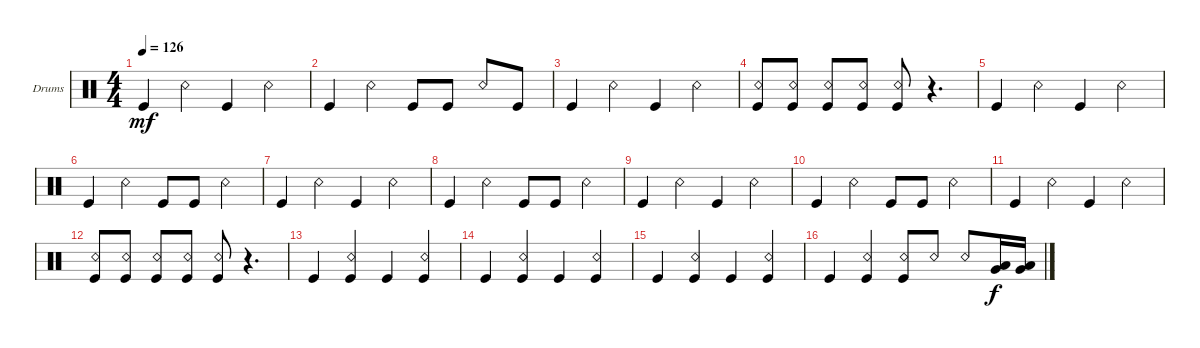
\defaultSystemsLayout 4
\bracketExtendMode groupsimilarinstruments
\firstSystemTrackNameOrientation horizontal
\otherSystemsTrackNameOrientation horizontal
\track ("Drumkit" "Drums") {instrument percussion}
\staff {score}
\articulation defaults
\ts (4 4)
\tempo 126
\clef neutral
\ks c "Kick (hit)".4{dy mf} "Snare (rim shot)".4 "Kick (hit)".4 "Snare (rim shot)".4
|
"Kick (hit)".4 "Snare (rim shot)".4 "Kick (hit)".8 "Kick (hit)".8 "Snare (rim shot)".8 "Kick (hit)".8 |
"Kick (hit)".4 "Snare (rim shot)".4 "Kick (hit)".4 "Snare (rim shot)".4 |
("Kick (hit)" "Snare (rim shot)").8 ("Snare (rim shot)" "Kick (hit)").8 ("Kick (hit)" "Snare (rim shot)").8 ("Kick (hit)" "Snare (rim shot)").8 ("Snare (rim shot)" "Kick (hit)").8 r.4{d} |
"Kick (hit)".4 "Snare (rim shot)".4 "Kick (hit)".4 "Snare (rim shot)".4 |
"Kick (hit)".4 "Snare (rim shot)".4 "Kick (hit)".8 "Kick (hit)".8 "Snare (rim shot)".4 |
"Kick (hit)".4 "Snare (rim shot)".4 "Kick (hit)".4 "Snare (rim shot)".4 |
"Kick (hit)".4 "Snare (rim shot)".4 "Kick (hit)".8 "Kick (hit)".8 "Snare (rim shot)".4 |
"Kick (hit)".4 "Snare (rim shot)".4 "Kick (hit)".4 "Snare (rim shot)".4 |
"Kick (hit)".4 "Snare (rim shot)".4 "Kick (hit)".8 "Kick (hit)".8 "Snare (rim shot)".4 |
"Kick (hit)".4 "Snare (rim shot)".4 "Kick (hit)".4 "Snare (rim shot)".4 |
("Kick (hit)" "Snare (rim shot)").8 ("Snare (rim shot)" "Kick (hit)").8 ("Kick (hit)" "Snare (rim shot)").8 ("Kick (hit)" "Snare (rim shot)").8 ("Snare (rim shot)" "Kick (hit)").8 r.4{d} |
"Kick (hit)".4 ("Kick (hit)" "Snare (rim shot)").4 "Kick (hit)".4 ("Kick (hit)" "Snare (rim shot)").4 |
"Kick (hit)".4 ("Kick (hit)" "Snare (rim shot)").4 "Kick (hit)".4 ("Kick (hit)" "Snare (rim shot)").4 |
"Kick (hit)".4 ("Kick (hit)" "Snare (rim shot)").4 "Kick (hit)".4 ("Kick (hit)" "Snare (rim shot)").4 |
"Kick (hit)".4 ("Kick (hit)" "Snare (rim shot)").4 ("Kick (hit)" "Snare (rim shot)").8 "Snare (rim shot)".8 "Snare (rim shot)".8 ("Very Low Tom (hit)" "Low Tom (hit)").16{dy f} ("Low Tom (hit)" "Very Low Tom (hit)").16
